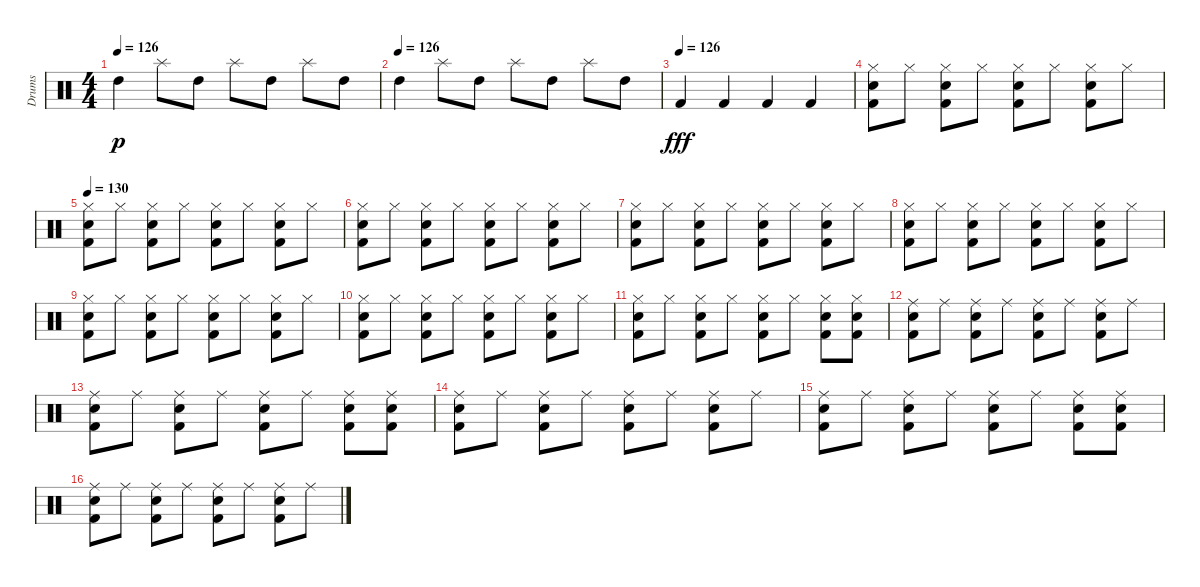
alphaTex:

\track ("Drums" "Drums") {instrument percussion}
\staff {score}
\articulation defaults
\ts (4 4)
\tempo 126
\clef neutral
\ks c "High Tom (hit)".4{dy p} "Splash (hit)".8 "High Tom (hit)".8 "Splash (hit)".8 "High Tom (hit)".8 "Splash (hit)".8 "High Tom (hit)".8
|
\tempo (126)
"High Tom (hit)".4 "Splash (hit)".8 "High Tom (hit)".8 "Splash (hit)".8 "High Tom (hit)".8 "Splash (hit)".8 "High Tom (hit)".8 |
\tempo (126)
"Kick (hit) 2".4{dy fff} "Kick (hit) 2".4 "Kick (hit) 2".4 "Kick (hit) 2".4 |
("Kick (hit) 2" "Snare (hit) 2" "Hi-Hat (closed)").8 "Hi-Hat (closed)".8 ("Kick (hit) 2" "Snare (hit) 2" "Hi-Hat (closed)").8 "Hi-Hat (closed)".8 ("Kick (hit) 2" "Snare (hit) 2" "Hi-Hat (closed)").8 "Hi-Hat (closed)".8 ("Kick (hit) 2" "Snare (hit) 2" "Hi-Hat (closed)").8 "Hi-Hat (closed)".8 |
\tempo 130
("Kick (hit) 2" "Snare (hit) 2" "Hi-Hat (closed)").8 "Hi-Hat (closed)".8 ("Kick (hit) 2" "Snare (hit) 2" "Hi-Hat (closed)").8 "Hi-Hat (closed)".8 ("Kick (hit) 2" "Snare (hit) 2" "Hi-Hat (closed)").8 "Hi-Hat (closed)".8 ("Kick (hit) 2" "Snare (hit) 2" "Hi-Hat (closed)").8 "Hi-Hat (closed)".8 |
("Kick (hit) 2" "Snare (hit) 2" "Hi-Hat (closed)").8 "Hi-Hat (closed)".8 ("Kick (hit) 2" "Snare (hit) 2" "Hi-Hat (closed)").8 "Hi-Hat (closed)".8 ("Kick (hit) 2" "Snare (hit) 2" "Hi-Hat (closed)").8 "Hi-Hat (closed)".8 ("Kick (hit) 2" "Snare (hit) 2" "Hi-Hat (closed)").8 "Hi-Hat (closed)".8 |
("Kick (hit) 2" "Snare (hit) 2" "Hi-Hat (closed)").8 "Hi-Hat (closed)".8 ("Kick (hit) 2" "Snare (hit) 2" "Hi-Hat (closed)").8 "Hi-Hat (closed)".8 ("Kick (hit) 2" "Snare (hit) 2" "Hi-Hat (closed)").8 "Hi-Hat (closed)".8 ("Kick (hit) 2" "Snare (hit) 2" "Hi-Hat (closed)").8 "Hi-Hat (closed)".8 |
("Kick (hit) 2" "Snare (hit) 2" "Hi-Hat (closed)").8 "Hi-Hat (closed)".8 ("Kick (hit) 2" "Snare (hit) 2" "Hi-Hat (closed)").8 "Hi-Hat (closed)".8 ("Kick (hit) 2" "Snare (hit) 2" "Hi-Hat (closed)").8 "Hi-Hat (closed)".8 ("Kick (hit) 2" "Snare (hit) 2" "Hi-Hat (closed)").8 "Hi-Hat (closed)".8 |
("Kick (hit) 2" "Snare (hit) 2" "Hi-Hat (closed)").8 "Hi-Hat (closed)".8 ("Kick (hit) 2" "Snare (hit) 2" "Hi-Hat (closed)").8 "Hi-Hat (closed)".8 ("Kick (hit) 2" "Snare (hit) 2" "Hi-Hat (closed)").8 "Hi-Hat (closed)".8 ("Kick (hit) 2" "Snare (hit) 2" "Hi-Hat (closed)").8 "Hi-Hat (closed)".8 |
("Kick (hit) 2" "Snare (hit) 2" "Hi-Hat (closed)").8 "Hi-Hat (closed)".8 ("Kick (hit) 2" "Snare (hit) 2" "Hi-Hat (closed)").8 "Hi-Hat (closed)".8 ("Kick (hit) 2" "Snare (hit) 2" "Hi-Hat (closed)").8 "Hi-Hat (closed)".8 ("Kick (hit) 2" "Snare (hit) 2" "Hi-Hat (closed)").8 "Hi-Hat (closed)".8 |
("Kick (hit) 2" "Snare (hit) 2" "Hi-Hat (closed)").8 "Hi-Hat (closed)".8 ("Kick (hit) 2" "Snare (hit) 2" "Hi-Hat (closed)").8 "Hi-Hat (closed)".8 ("Kick (hit) 2" "Snare (hit) 2" "Hi-Hat (closed)").8 "Hi-Hat (closed)".8 ("Kick (hit) 2" "Snare (hit) 2" "Hi-Hat (closed)").8 ("Kick (hit) 2" "Snare (hit) 2" "Hi-Hat (closed)").8 |
("Kick (hit) 2" "Snare (hit) 2" "Ride (middle)").8 "Ride (middle)".8 ("Kick (hit) 2" "Snare (hit) 2" "Ride (middle)").8 "Ride (middle)".8 ("Kick (hit) 2" "Snare (hit) 2" "Ride (middle)").8 "Ride (middle)".8 ("Kick (hit) 2" "Snare (hit) 2" "Ride (middle)").8 "Ride (middle)".8 |
("Kick (hit) 2" "Snare (hit) 2" "Ride (middle)").8 "Ride (middle)".8 ("Kick (hit) 2" "Snare (hit) 2" "Ride (middle)").8 "Ride (middle)".8 ("Kick (hit) 2" "Snare (hit) 2" "Ride (middle)").8 "Ride (middle)".8 ("Kick (hit) 2" "Snare (hit) 2" "Ride (middle)").8 ("Kick (hit) 2" "Snare (hit) 2" "Ride (middle)").8 |
("Kick (hit) 2" "Snare (hit) 2" "Ride (middle)").8 "Ride (middle)".8 ("Kick (hit) 2" "Snare (hit) 2" "Ride (middle)").8 "Ride (middle)".8 ("Kick (hit) 2" "Snare (hit) 2" "Ride (middle)").8 "Ride (middle)".8 ("Kick (hit) 2" "Snare (hit) 2" "Ride (middle)").8 "Ride (middle)".8 |
("Kick (hit) 2" "Snare (hit) 2" "Ride (middle)").8 "Ride (middle)".8 ("Kick (hit) 2" "Snare (hit) 2" "Ride (middle)").8 "Ride (middle)".8 ("Kick (hit) 2" "Snare (hit) 2" "Ride (middle)").8 "Ride (middle)".8 ("Kick (hit) 2" "Snare (hit) 2" "Ride (middle)").8 ("Kick (hit) 2" "Snare (hit) 2" "Ride (middle)").8 |
("Kick (hit) 2" "Snare (hit) 2" "Ride (middle)").8 "Ride (middle)".8 ("Kick (hit) 2" "Snare (hit) 2" "Ride (middle)").8 "Ride (middle)".8 ("Kick (hit) 2" "Snare (hit) 2" "Ride (middle)").8 "Ride (middle)".8 ("Kick (hit) 2" "Snare (hit) 2" "Ride (middle)").8 "Ride (middle)".8
